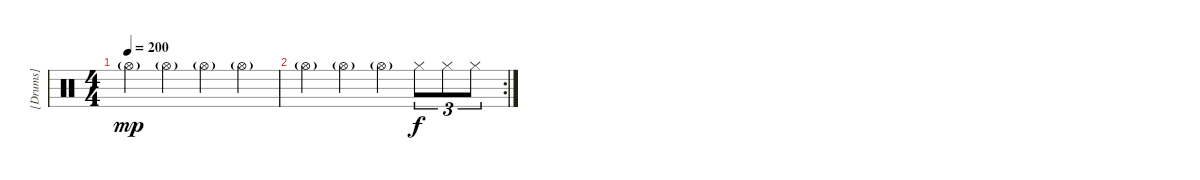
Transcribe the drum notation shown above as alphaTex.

\track ("[Drums]" "[Drums]") {instrument percussion}
\staff {score}
\articulation defaults
\ts (4 4)
\tempo 200
\clef neutral
\ks c "Hi-Hat (open)"{g}.4{dy mp} "Hi-Hat (open)"{g}.4 "Hi-Hat (open)"{g}.4 "Hi-Hat (open)"{g}.4
|
\rc 2 "Hi-Hat (open)"{g}.4 "Hi-Hat (open)"{g}.4 "Hi-Hat (open)"{g}.4 "Hi-Hat (closed)".8{tu (3 2) dy f} "Hi-Hat (closed)".8{tu (3 2)} "Hi-Hat (closed)".8{tu (3 2)}
